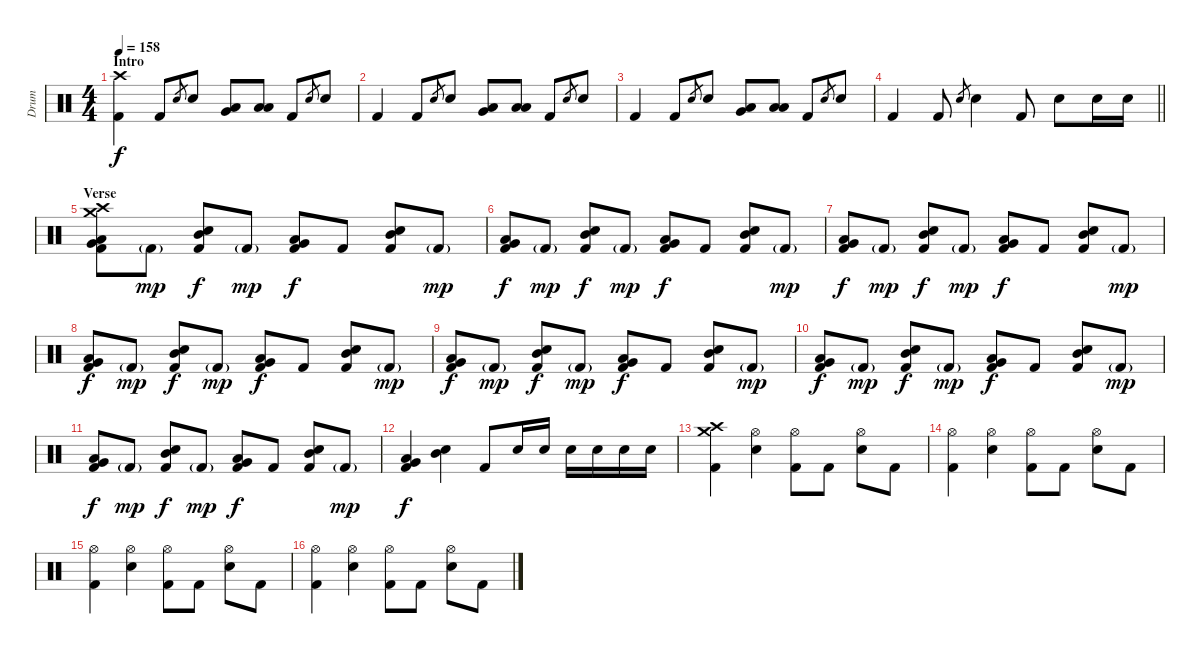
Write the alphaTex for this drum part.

\track ("Drum" "Drum") {instrument percussion}
\staff {score}
\articulation defaults
\ts (4 4)
\section ("" "Intro")
\tempo 158
\clef neutral
\ks c
("Crash high (hit)" "Kick (hit) 2").4{dy f} "Kick (hit) 2".8 "Electric Snare (hit)".8{gr} "Electric Snare (hit)".8 ("Very Low Tom (hit)" "Low Tom (hit)").8 ("Low Floor Tom (hit)" "Low Tom (hit)").8 "Kick (hit) 2".8 "Electric Snare (hit)".8{gr} "Electric Snare (hit)".8 |
"Kick (hit) 2".4 "Kick (hit) 2".8 "Electric Snare (hit)".8{gr} "Electric Snare (hit)".8 ("Very Low Tom (hit)" "Low Tom (hit)").8 ("Low Floor Tom (hit)" "Low Tom (hit)").8 "Kick (hit) 2".8 "Electric Snare (hit)".8{gr} "Electric Snare (hit)".8 |
"Kick (hit) 2".4 "Kick (hit) 2".8 "Electric Snare (hit)".8{gr} "Electric Snare (hit)".8 ("Very Low Tom (hit)" "Low Tom (hit)").8 ("Low Floor Tom (hit)" "Low Tom (hit)").8 "Kick (hit) 2".8 "Electric Snare (hit)".8{gr} "Electric Snare (hit)".8 |
\barLineRight lightlight "Kick (hit) 2".4 "Kick (hit) 2".8 "Electric Snare (hit)".8{gr} "Electric Snare (hit)".4 "Kick (hit) 2".8 "Electric Snare (hit)".8 "Electric Snare (hit)".16 "Electric Snare (hit)".16
|
\section ("" "Verse")
("Crash high (hit)" "Crash medium (hit)" "Low Floor Tom (hit)" "Very Low Tom (hit)" "Kick (hit) 2").8 "Kick (hit) 2"{g}.8{dy mp} ("Mid Tom (hit)" "Electric Snare (hit)" "Kick (hit) 2").8{dy f} "Kick (hit) 2"{g}.8{dy mp} ("Low Floor Tom (hit)" "Very Low Tom (hit)" "Kick (hit) 2").8{dy f} "Kick (hit) 2".8 ("Mid Tom (hit)" "Electric Snare (hit)" "Kick (hit) 2").8 "Kick (hit) 2"{g}.8{dy mp} |
("Low Floor Tom (hit)" "Very Low Tom (hit)" "Kick (hit) 2").8{dy f} "Kick (hit) 2"{g}.8{dy mp} ("Mid Tom (hit)" "Electric Snare (hit)" "Kick (hit) 2").8{dy f} "Kick (hit) 2"{g}.8{dy mp} ("Low Floor Tom (hit)" "Very Low Tom (hit)" "Kick (hit) 2").8{dy f} "Kick (hit) 2".8 ("Mid Tom (hit)" "Electric Snare (hit)" "Kick (hit) 2").8 "Kick (hit) 2"{g}.8{dy mp} |
("Low Floor Tom (hit)" "Very Low Tom (hit)" "Kick (hit) 2").8{dy f} "Kick (hit) 2"{g}.8{dy mp} ("Mid Tom (hit)" "Electric Snare (hit)" "Kick (hit) 2").8{dy f} "Kick (hit) 2"{g}.8{dy mp} ("Low Floor Tom (hit)" "Very Low Tom (hit)" "Kick (hit) 2").8{dy f} "Kick (hit) 2".8 ("Mid Tom (hit)" "Electric Snare (hit)" "Kick (hit) 2").8 "Kick (hit) 2"{g}.8{dy mp} |
("Low Floor Tom (hit)" "Very Low Tom (hit)" "Kick (hit) 2").8{dy f} "Kick (hit) 2"{g}.8{dy mp} ("Mid Tom (hit)" "Electric Snare (hit)" "Kick (hit) 2").8{dy f} "Kick (hit) 2"{g}.8{dy mp} ("Low Floor Tom (hit)" "Very Low Tom (hit)" "Kick (hit) 2").8{dy f} "Kick (hit) 2".8 ("Mid Tom (hit)" "Electric Snare (hit)" "Kick (hit) 2").8 "Kick (hit) 2"{g}.8{dy mp} |
("Low Floor Tom (hit)" "Very Low Tom (hit)" "Kick (hit) 2").8{dy f} "Kick (hit) 2"{g}.8{dy mp} ("Mid Tom (hit)" "Electric Snare (hit)" "Kick (hit) 2").8{dy f} "Kick (hit) 2"{g}.8{dy mp} ("Low Floor Tom (hit)" "Very Low Tom (hit)" "Kick (hit) 2").8{dy f} "Kick (hit) 2".8 ("Mid Tom (hit)" "Electric Snare (hit)" "Kick (hit) 2").8 "Kick (hit) 2"{g}.8{dy mp} |
("Low Floor Tom (hit)" "Very Low Tom (hit)" "Kick (hit) 2").8{dy f} "Kick (hit) 2"{g}.8{dy mp} ("Mid Tom (hit)" "Electric Snare (hit)" "Kick (hit) 2").8{dy f} "Kick (hit) 2"{g}.8{dy mp} ("Low Floor Tom (hit)" "Very Low Tom (hit)" "Kick (hit) 2").8{dy f} "Kick (hit) 2".8 ("Mid Tom (hit)" "Electric Snare (hit)" "Kick (hit) 2").8 "Kick (hit) 2"{g}.8{dy mp} |
("Low Floor Tom (hit)" "Very Low Tom (hit)" "Kick (hit) 2").8{dy f} "Kick (hit) 2"{g}.8{dy mp} ("Mid Tom (hit)" "Electric Snare (hit)" "Kick (hit) 2").8{dy f} "Kick (hit) 2"{g}.8{dy mp} ("Low Floor Tom (hit)" "Very Low Tom (hit)" "Kick (hit) 2").8{dy f} "Kick (hit) 2".8 ("Mid Tom (hit)" "Electric Snare (hit)" "Kick (hit) 2").8 "Kick (hit) 2"{g}.8{dy mp} |
("Low Floor Tom (hit)" "Very Low Tom (hit)" "Kick (hit) 2").4{dy f} ("Mid Tom (hit)" "Electric Snare (hit)").4 "Kick (hit) 2".8 "Electric Snare (hit)".16 "Electric Snare (hit)".16 "Electric Snare (hit)".16 "Electric Snare (hit)".16 "Electric Snare (hit)".16 "Electric Snare (hit)".16 |
("Crash high (hit)" "Crash medium (hit)" "Kick (hit) 2").4 ("Hi-Hat (open)" "Electric Snare (hit)").4 ("Hi-Hat (open)" "Kick (hit) 2").8 "Kick (hit) 2".8 ("Hi-Hat (open)" "Electric Snare (hit)").8 "Kick (hit) 2".8 |
("Hi-Hat (open)" "Kick (hit) 2").4 ("Hi-Hat (open)" "Electric Snare (hit)").4 ("Hi-Hat (open)" "Kick (hit) 2").8 "Kick (hit) 2".8 ("Hi-Hat (open)" "Electric Snare (hit)").8 "Kick (hit) 2".8 |
("Hi-Hat (open)" "Kick (hit) 2").4 ("Hi-Hat (open)" "Electric Snare (hit)").4 ("Hi-Hat (open)" "Kick (hit) 2").8 "Kick (hit) 2".8 ("Hi-Hat (open)" "Electric Snare (hit)").8 "Kick (hit) 2".8 |
("Hi-Hat (open)" "Kick (hit) 2").4 ("Hi-Hat (open)" "Electric Snare (hit)").4 ("Hi-Hat (open)" "Kick (hit) 2").8 "Kick (hit) 2".8 ("Hi-Hat (open)" "Electric Snare (hit)").8 "Kick (hit) 2".8
